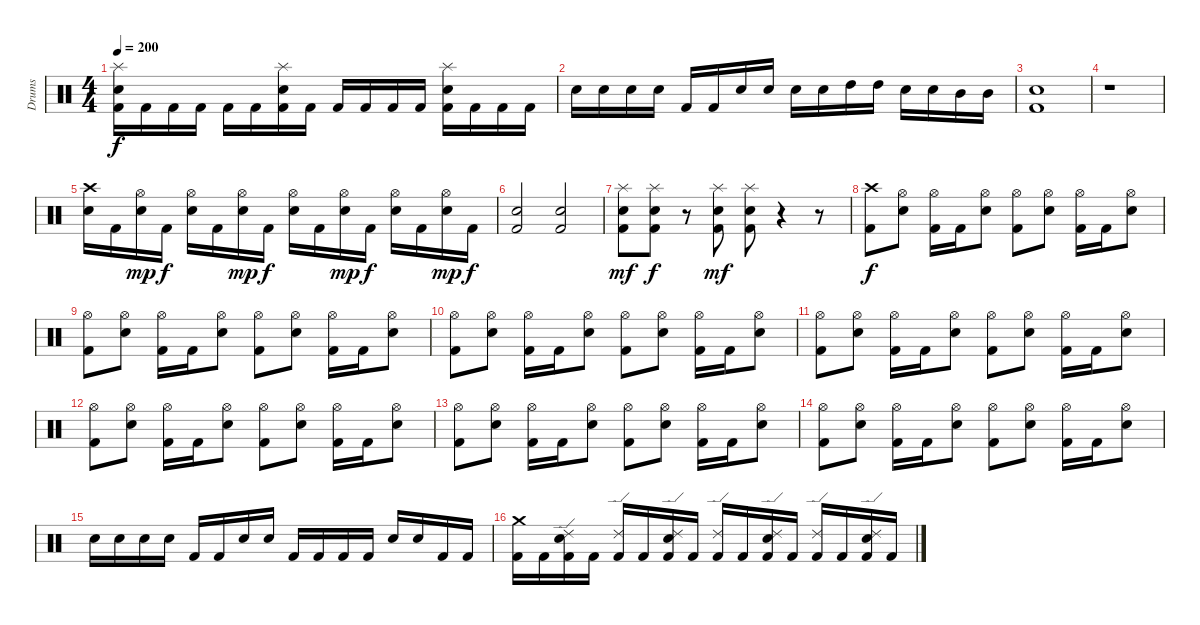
\track ("Drums" "Drums") {instrument percussion}
\staff {score}
\articulation defaults
\ts (4 4)
\tempo 200
\clef neutral
\ks c
("Kick (hit) 2" "Snare (hit) 2" "Splash (hit)").16{dy f} "Kick (hit) 2".16 "Kick (hit) 2".16 "Kick (hit) 2".16 "Kick (hit) 2".16 "Kick (hit) 2".16 ("Kick (hit) 2" "Snare (hit) 2" "Splash (hit)").16 "Kick (hit) 2".16 "Kick (hit) 2".16 "Kick (hit) 2".16 "Kick (hit) 2".16 "Kick (hit) 2".16 ("Kick (hit) 2" "Snare (hit) 2" "Splash (hit)").16 "Kick (hit) 2".16 "Kick (hit) 2".16 "Kick (hit) 2".16 |
"Snare (hit) 2".16 "Snare (hit) 2".16 "Snare (hit) 2".16 "Snare (hit) 2".16 "Kick (hit) 2".16 "Kick (hit) 2".16 "Snare (hit) 2".16 "Snare (hit) 2".16 "Snare (hit) 2".16 "Snare (hit) 2".16 "High Tom (hit)".16 "High Tom (hit)".16 "Snare (hit) 2".16 "Snare (hit) 2".16 "Mid Tom (hit)".16 "Mid Tom (hit)".16 |
("Kick (hit) 2" "Snare (hit) 2").1 |
r.1 |
("Snare (hit) 2" "Crash high (hit)").16 "Kick (hit) 2".16 ("Snare (hit) 2" "Hi-Hat (open)").16{dy mp} "Kick (hit) 2".16{dy f} ("Snare (hit) 2" "Hi-Hat (open)").16 "Kick (hit) 2".16 ("Snare (hit) 2" "Hi-Hat (open)").16{dy mp} "Kick (hit) 2".16{dy f} ("Snare (hit) 2" "Hi-Hat (open)").16 "Kick (hit) 2".16 ("Snare (hit) 2" "Hi-Hat (open)").16{dy mp} "Kick (hit) 2".16{dy f} ("Snare (hit) 2" "Hi-Hat (open)").16 "Kick (hit) 2".16 ("Snare (hit) 2" "Hi-Hat (open)").16{dy mp} "Kick (hit) 2".16{dy f} |
("Kick (hit) 2" "Snare (hit) 2").2 ("Kick (hit) 2" "Snare (hit) 2").2 |
("Kick (hit) 2" "Snare (hit) 2" "Splash (hit)").8{dy mf} ("Kick (hit) 2" "Snare (hit) 2" "Splash (hit)").8{dy f} r.8 ("Kick (hit) 2" "Snare (hit) 2" "Splash (hit)").8{dy mf} ("Kick (hit) 2" "Snare (hit) 2" "Splash (hit)").8 r.4 r.8 |
\section ("" "")
("Kick (hit) 2" "Crash high (hit)").8{dy f} ("Snare (hit) 2" "Hi-Hat (open)").8 ("Kick (hit) 2" "Hi-Hat (open)").16 "Kick (hit) 2".16 ("Snare (hit) 2" "Hi-Hat (open)").8 ("Kick (hit) 2" "Hi-Hat (open)").8 ("Snare (hit) 2" "Hi-Hat (open)").8 ("Kick (hit) 2" "Hi-Hat (open)").16 "Kick (hit) 2".16 ("Snare (hit) 2" "Hi-Hat (open)").8 |
("Kick (hit) 2" "Hi-Hat (open)").8 ("Snare (hit) 2" "Hi-Hat (open)").8 ("Kick (hit) 2" "Hi-Hat (open)").16 "Kick (hit) 2".16 ("Snare (hit) 2" "Hi-Hat (open)").8 ("Kick (hit) 2" "Hi-Hat (open)").8 ("Snare (hit) 2" "Hi-Hat (open)").8 ("Kick (hit) 2" "Hi-Hat (open)").16 "Kick (hit) 2".16 ("Snare (hit) 2" "Hi-Hat (open)").8 |
("Kick (hit) 2" "Hi-Hat (open)").8 ("Snare (hit) 2" "Hi-Hat (open)").8 ("Kick (hit) 2" "Hi-Hat (open)").16 "Kick (hit) 2".16 ("Snare (hit) 2" "Hi-Hat (open)").8 ("Kick (hit) 2" "Hi-Hat (open)").8 ("Snare (hit) 2" "Hi-Hat (open)").8 ("Kick (hit) 2" "Hi-Hat (open)").16 "Kick (hit) 2".16 ("Snare (hit) 2" "Hi-Hat (open)").8 |
("Kick (hit) 2" "Hi-Hat (open)").8 ("Snare (hit) 2" "Hi-Hat (open)").8 ("Kick (hit) 2" "Hi-Hat (open)").16 "Kick (hit) 2".16 ("Snare (hit) 2" "Hi-Hat (open)").8 ("Kick (hit) 2" "Hi-Hat (open)").8 ("Snare (hit) 2" "Hi-Hat (open)").8 ("Kick (hit) 2" "Hi-Hat (open)").16 "Kick (hit) 2".16 ("Snare (hit) 2" "Hi-Hat (open)").8 |
("Kick (hit) 2" "Hi-Hat (open)").8 ("Snare (hit) 2" "Hi-Hat (open)").8 ("Kick (hit) 2" "Hi-Hat (open)").16 "Kick (hit) 2".16 ("Snare (hit) 2" "Hi-Hat (open)").8 ("Kick (hit) 2" "Hi-Hat (open)").8 ("Snare (hit) 2" "Hi-Hat (open)").8 ("Kick (hit) 2" "Hi-Hat (open)").16 "Kick (hit) 2".16 ("Snare (hit) 2" "Hi-Hat (open)").8 |
("Kick (hit) 2" "Hi-Hat (open)").8 ("Snare (hit) 2" "Hi-Hat (open)").8 ("Kick (hit) 2" "Hi-Hat (open)").16 "Kick (hit) 2".16 ("Snare (hit) 2" "Hi-Hat (open)").8 ("Kick (hit) 2" "Hi-Hat (open)").8 ("Snare (hit) 2" "Hi-Hat (open)").8 ("Kick (hit) 2" "Hi-Hat (open)").16 "Kick (hit) 2".16 ("Snare (hit) 2" "Hi-Hat (open)").8 |
("Kick (hit) 2" "Hi-Hat (open)").8 ("Snare (hit) 2" "Hi-Hat (open)").8 ("Kick (hit) 2" "Hi-Hat (open)").16 "Kick (hit) 2".16 ("Snare (hit) 2" "Hi-Hat (open)").8 ("Kick (hit) 2" "Hi-Hat (open)").8 ("Snare (hit) 2" "Hi-Hat (open)").8 ("Kick (hit) 2" "Hi-Hat (open)").16 "Kick (hit) 2".16 ("Snare (hit) 2" "Hi-Hat (open)").8 |
"Snare (hit) 2".16 "Snare (hit) 2".16 "Snare (hit) 2".16 "Snare (hit) 2".16 "Kick (hit) 2".16 "Kick (hit) 2".16 "Snare (hit) 2".16 "Snare (hit) 2".16 "Kick (hit) 2".16 "Kick (hit) 2".16 "Kick (hit) 2".16 "Kick (hit) 2".16 "Snare (hit) 2".16 "Snare (hit) 2".16 "Kick (hit) 2".16 "Kick (hit) 2".16 |
("Kick (hit) 2" "Crash medium (hit)").16 "Kick (hit) 2".16 ("Kick (hit) 2" "Snare (hit) 2" "Ride (edge) 2").16 "Kick (hit) 2".16 ("Kick (hit) 2" "Ride (edge) 2").16 "Kick (hit) 2".16 ("Kick (hit) 2" "Snare (hit) 2" "Ride (edge) 2").16 "Kick (hit) 2".16 ("Kick (hit) 2" "Ride (edge) 2").16 "Kick (hit) 2".16 ("Kick (hit) 2" "Snare (hit) 2" "Ride (edge) 2").16 "Kick (hit) 2".16 ("Kick (hit) 2" "Ride (edge) 2").16 "Kick (hit) 2".16 ("Kick (hit) 2" "Snare (hit) 2" "Ride (edge) 2").16 "Kick (hit) 2".16
